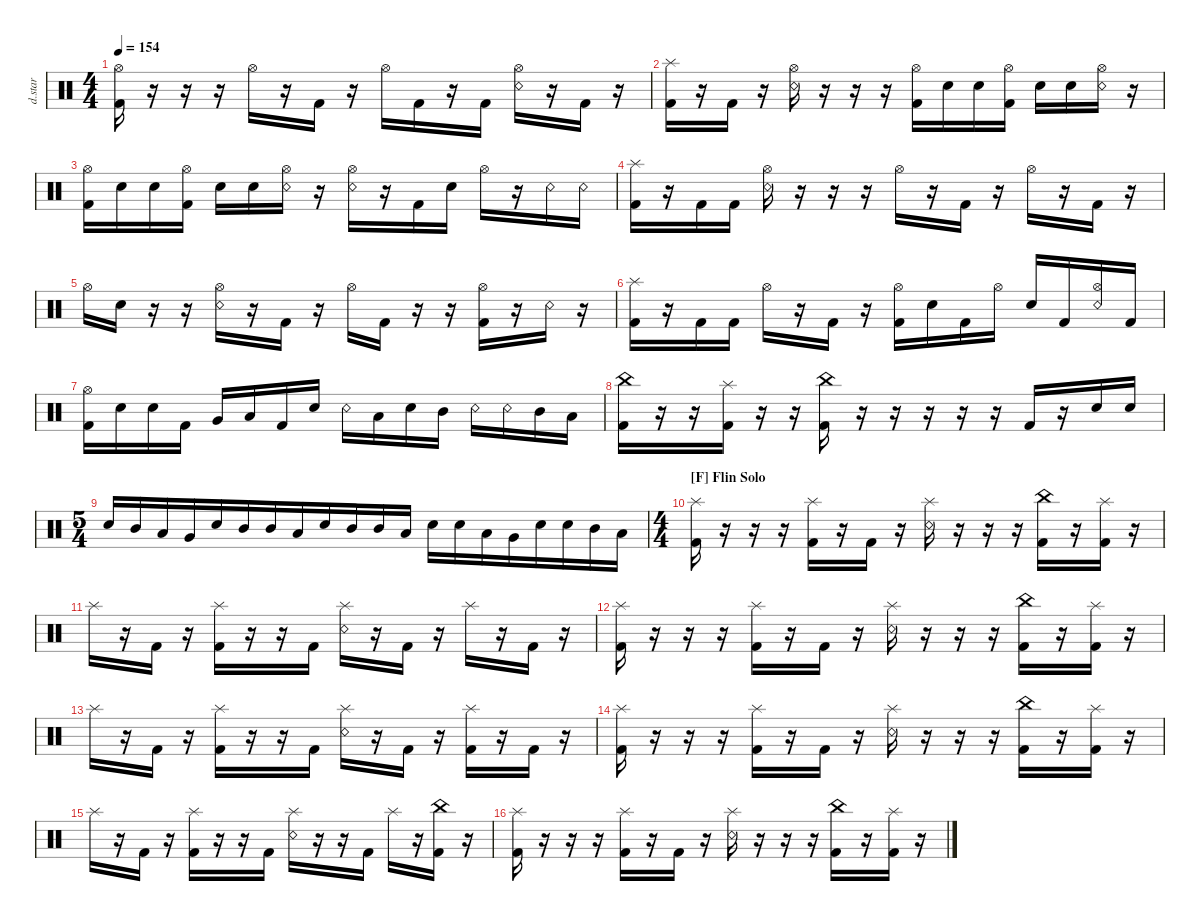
\defaultSystemsLayout 4
\hideDynamics
\bracketExtendMode nobrackets
\otherSystemsTrackNameOrientation horizontal
\track ("Drumkit Star" "d.star") {instrument percussion}
\staff {score}
\articulation defaults
\ts (4 4)
\tempo 154
\clef neutral
\ks c
("Kick (hit) 2" "Hi-Hat (open)").16{dy ff beam Down} r.16{beam Down} r.16{beam Down} r.16{beam Down} "Hi-Hat (open)".16{beam Down} r.16{beam Down} "Kick (hit) 2".16{beam Down} r.16{beam Down} "Hi-Hat (open)".16{beam Down} "Kick (hit) 2".16{beam Down} r.16{beam Down} "Kick (hit) 2".16{beam Down} ("Hi-Hat (open)" "Snare (rim shot)").16{beam Down} r.16{beam Down} "Kick (hit) 2".16{beam Down} r.16{beam Down} |
("Splash (hit)" "Kick (hit) 2").16{beam Down} r.16{beam Down} "Kick (hit) 2".16{beam Down} r.16{beam Down} ("Snare (rim shot)" "Hi-Hat (open)").16{beam Down} r.16{beam Down} r.16{beam Down} r.16{beam Down} ("Hi-Hat (open)" "Kick (hit) 2").16{beam Down} "Snare (hit) 2".16{dy mp beam Down} "Snare (hit) 2".16{beam Down} ("Kick (hit) 2" "Hi-Hat (open)").16{dy ff beam Down} "Snare (hit) 2".16{dy mp beam Down} "Snare (hit) 2".16{beam Down} ("Snare (rim shot)" "Hi-Hat (open)").16{dy ff beam Down} r.16{beam Down} |
("Kick (hit) 2" "Hi-Hat (open)").16{beam Down} "Snare (hit) 2".16{dy mp beam Down} "Snare (hit) 2".16{beam Down} ("Kick (hit) 2" "Hi-Hat (open)").16{dy ff beam Down} "Snare (hit) 2".16{dy mp beam Down} "Snare (hit) 2".16{beam Down} ("Hi-Hat (open)" "Snare (rim shot)").16{dy ff beam Down} r.16{beam Down} ("Hi-Hat (open)" "Snare (rim shot)").16{beam Down} r.16{beam Down} "Kick (hit) 2".16{beam Down} "Snare (hit) 2".16{dy mp beam Down} "Hi-Hat (open)".16{dy ff beam Down} r.16{beam Down} "Snare (rim shot)".16{beam Down} "Snare (rim shot)".16{beam Down} |
("Kick (hit) 2" "Splash (hit)").16{beam Down} r.16{beam Down} "Kick (hit) 2".16{beam Down} "Kick (hit) 2".16{beam Down} ("Hi-Hat (open)" "Snare (rim shot)").16{beam Down} r.16{beam Down} r.16{beam Down} r.16{beam Down} "Hi-Hat (open)".16{beam Down} r.16{beam Down} "Kick (hit) 2".16{beam Down} r.16{beam Down} "Hi-Hat (open)".16{beam Down} r.16{beam Down} "Kick (hit) 2".16{beam Down} r.16{beam Down} |
"Hi-Hat (open)".16{beam Down} "Snare (hit) 2".16{dy mp beam Down} r.16{beam Down} r.16{beam Down} ("Hi-Hat (open)" "Snare (rim shot)").16{dy ff beam Down} r.16{beam Down} "Kick (hit) 2".16{beam Down} r.16{beam Down} "Hi-Hat (open)".16{beam Down} "Kick (hit) 2".16{beam Down} r.16{beam Down} r.16{beam Down} ("Hi-Hat (open)" "Kick (hit) 2").16{beam Down} r.16{beam Down} "Snare (rim shot)".16{beam Down} r.16{beam Down} |
("Kick (hit) 2" "Splash (hit)").16{beam Down} r.16{beam Down} "Kick (hit) 2".16{beam Down} "Kick (hit) 2".16{beam Down} "Hi-Hat (open)".16{beam Down} r.16{beam Down} "Kick (hit) 2".16{beam Down} r.16{beam Down} ("Hi-Hat (open)" "Kick (hit) 2").16{beam Down} "Snare (hit) 2".16{dy mp beam Down} "Kick (hit) 2".16{dy ff beam Down} "Hi-Hat (open)".16{beam Down} "Snare (hit) 2".16{dy mp beam Up} "Kick (hit) 2".16{dy ff beam Up} ("Snare (rim shot)" "Hi-Hat (open)").16{beam Up} "Kick (hit) 2".16{beam Up} |
("Hi-Hat (open)" "Kick (hit) 2").16{beam Down} "Snare (hit) 2".16{dy mp beam Down} "Snare (hit) 2".16{beam Down} "Kick (hit) 2".16{dy ff beam Down} "Very Low Tom (hit)".16{beam Up} "Low Tom (hit)".16{beam Up} "Kick (hit) 2".16{beam Up} "Snare (hit) 2".16{beam Up} "Snare (rim shot)".16{beam Down} "Low Tom (hit)".16{beam Down} "Snare (hit) 2".16{beam Down} "Mid Tom (hit)".16{beam Down} "Snare (rim shot)".16{beam Down} "Snare (rim shot)".16{beam Down} "Mid Tom (hit)".16{beam Down} "Low Tom (hit)".16{beam Down} |
("China (hit)" "Kick (hit) 2").16{beam Down} r.16{beam Down} r.16{beam Down} ("Splash (hit)" "Kick (hit) 2").16{beam Down} r.16{beam Down} r.16{beam Down} ("Kick (hit) 2" "China (hit)").16{beam Down} r.16{beam Down} r.16{beam Down} r.16{beam Down} r.16{beam Down} r.16{beam Down} "Kick (hit) 2".16{beam Up} r.16{beam Up} "Snare (hit) 2".16{beam Up} "Snare (hit) 2".16{beam Up} |
\ts (5 4)
\beaming (8 6 4)
"Snare (hit) 2".16{beam Up} "Mid Tom (hit)".16{beam Up} "Low Tom (hit)".16{beam Up} "Very Low Tom (hit)".16{beam Up} "Snare (hit) 2".16{beam Up} "Mid Tom (hit)".16{beam Up} "Mid Tom (hit)".16{beam Up} "Low Tom (hit)".16{beam Up} "Snare (hit) 2".16{beam Up} "Mid Tom (hit)".16{beam Up} "Mid Tom (hit)".16{beam Up} "Low Tom (hit)".16{beam Up} "Snare (hit) 2".16{beam Down} "Snare (hit) 2".16{beam Down} "Low Tom (hit)".16{beam Down} "Very Low Tom (hit)".16{beam Down} "Snare (hit) 2".16{beam Down} "Snare (hit) 2".16{beam Down} "Mid Tom (hit)".16{beam Down} "Low Tom (hit)".16{beam Down} |
\ts (4 4)
\beaming (8 2 2 2 2)
\section ("F" "Flin Solo")
("Splash (hit)" "Kick (hit) 2").16{beam Down} r.16{beam Down} r.16{beam Down} r.16{beam Down} ("Splash (hit)" "Kick (hit) 2").16{beam Down} r.16{beam Down} "Kick (hit) 2".16{beam Down} r.16{beam Down} ("Splash (hit)" "Snare (rim shot)").16{beam Down} r.16{beam Down} r.16{beam Down} r.16{beam Down} ("China (hit)" "Kick (hit) 2").16{beam Down} r.16{beam Down} ("Splash (hit)" "Kick (hit) 2").16{beam Down} r.16{beam Down} |
"Splash (hit)".16{beam Down} r.16{beam Down} "Kick (hit) 2".16{beam Down} r.16{beam Down} ("Splash (hit)" "Kick (hit) 2").16{beam Down} r.16{beam Down} r.16{beam Down} "Kick (hit) 2".16{beam Down} ("Splash (hit)" "Snare (rim shot)").16{beam Down} r.16{beam Down} "Kick (hit) 2".16{beam Down} r.16{beam Down} "Splash (hit)".16{beam Down} r.16{beam Down} "Kick (hit) 2".16{beam Down} r.16{beam Down} |
("Splash (hit)" "Kick (hit) 2").16{beam Down} r.16{beam Down} r.16{beam Down} r.16{beam Down} ("Splash (hit)" "Kick (hit) 2").16{beam Down} r.16{beam Down} "Kick (hit) 2".16{beam Down} r.16{beam Down} ("Splash (hit)" "Snare (rim shot)").16{beam Down} r.16{beam Down} r.16{beam Down} r.16{beam Down} ("China (hit)" "Kick (hit) 2").16{beam Down} r.16{beam Down} ("Splash (hit)" "Kick (hit) 2").16{beam Down} r.16{beam Down} |
"Splash (hit)".16{beam Down} r.16{beam Down} "Kick (hit) 2".16{beam Down} r.16{beam Down} ("Splash (hit)" "Kick (hit) 2").16{beam Down} r.16{beam Down} r.16{beam Down} "Kick (hit) 2".16{beam Down} ("Splash (hit)" "Snare (rim shot)").16{beam Down} r.16{beam Down} "Kick (hit) 2".16{beam Down} r.16{beam Down} ("Splash (hit)" "Kick (hit) 2").16{beam Down} r.16{beam Down} "Kick (hit) 2".16{beam Down} r.16{beam Down} |
("Splash (hit)" "Kick (hit) 2").16{beam Down} r.16{beam Down} r.16{beam Down} r.16{beam Down} ("Splash (hit)" "Kick (hit) 2").16{beam Down} r.16{beam Down} "Kick (hit) 2".16{beam Down} r.16{beam Down} ("Splash (hit)" "Snare (rim shot)").16{beam Down} r.16{beam Down} r.16{beam Down} r.16{beam Down} ("China (hit)" "Kick (hit) 2").16{beam Down} r.16{beam Down} ("Splash (hit)" "Kick (hit) 2").16{beam Down} r.16{beam Down} |
"Splash (hit)".16{beam Down} r.16{beam Down} "Kick (hit) 2".16{beam Down} r.16{beam Down} ("Splash (hit)" "Kick (hit) 2").16{beam Down} r.16{beam Down} r.16{beam Down} "Kick (hit) 2".16{beam Down} ("Splash (hit)" "Snare (rim shot)").16{beam Down} r.16{beam Down} r.16{beam Down} "Kick (hit) 2".16{beam Down} "Splash (hit)".16{beam Down} r.16{beam Down} ("Kick (hit) 2" "China (hit)").16{beam Down} r.16{beam Down} |
("Splash (hit)" "Kick (hit) 2").16{beam Down} r.16{beam Down} r.16{beam Down} r.16{beam Down} ("Splash (hit)" "Kick (hit) 2").16{beam Down} r.16{beam Down} "Kick (hit) 2".16{beam Down} r.16{beam Down} ("Splash (hit)" "Snare (rim shot)").16{beam Down} r.16{beam Down} r.16{beam Down} r.16{beam Down} ("China (hit)" "Kick (hit) 2").16{beam Down} r.16{beam Down} ("Splash (hit)" "Kick (hit) 2").16{beam Down} r.16{beam Down}
